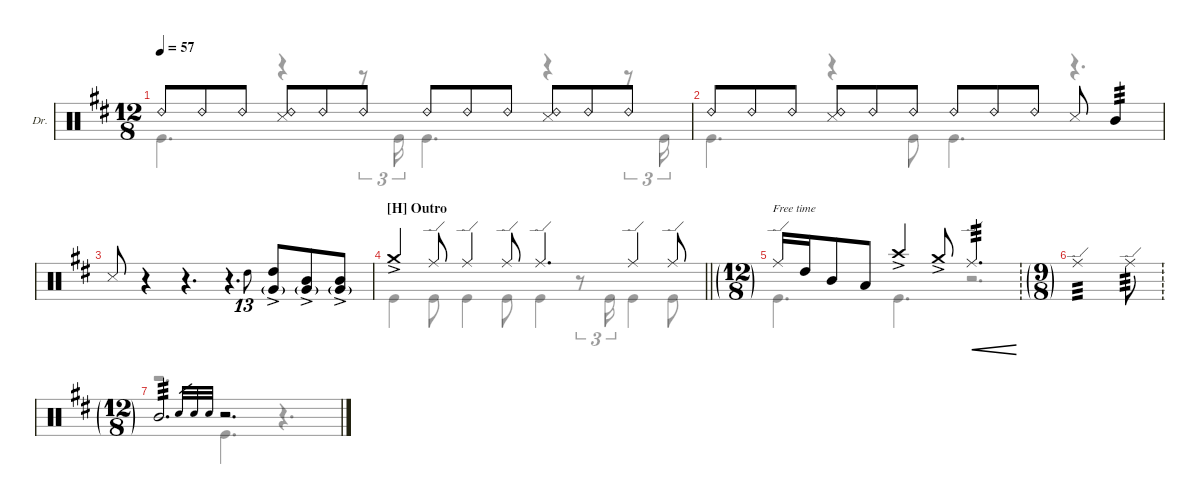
\defaultSystemsLayout 4
\hideDynamics
\bracketExtendMode groupsimilarinstruments
\firstSystemTrackNameOrientation horizontal
\otherSystemsTrackNameOrientation horizontal
\track ("Drums" "Dr.") {instrument percussion}
\staff {score}
\articulation defaults
\voice
\ts (12 8)
\tempo 57
\clef neutral
\ks d "Ride (bell) 2".8{dy p} "Ride (bell) 2".8 "Ride (bell) 2".8
("Ride (bell) 2" "Snare (side stick) 3").8 "Ride (bell) 2".8 "Ride (bell) 2".8 "Ride (bell) 2".8 "Ride (bell) 2".8 "Ride (bell) 2".8 ("Ride (bell) 2" "Snare (side stick) 3").8 "Ride (bell) 2".8 "Ride (bell) 2".8 |
"Ride (bell) 2".8 "Ride (bell) 2".8 "Ride (bell) 2".8 ("Ride (bell) 2" "Snare (side stick) 3").8 "Ride (bell) 2".8 "Ride (bell) 2".8 "Ride (bell) 2".8 "Ride (bell) 2".8 "Ride (bell) 2".8 "Snare (side stick) 3".8 "Mid Tom (hit)".4{tp 3} |
"Snare (side stick) 3".8{beam invert} r.4{beam invert} r.4{d beam invert} r.4{d beam invert} "High Tom (hit)".8{tu (13 8) gr onbeat dy pp beam invert} ("High Tom (hit)"{ac} "Very Low Tom (hit)"{g}).8{dy mp beam invert} ("Mid Tom (hit)"{ac} "Very Low Tom (hit)"{g}).8 ("Mid Tom (hit)"{ac} "Very Low Tom (hit)"{g}).8 |
\section ("H" "Outro")
\barLineRight lightlight "Crash medium (hit)"{ac}.4{dy p} "Ride (edge)".8 "Ride (edge)".4 "Ride (edge)".8 "Ride (edge)".4{d} "Ride (edge)".4 "Ride (edge)".8
|
\ft "Ride (edge)".16 "High Tom (hit)".16 "Mid Tom (hit)".8 "Low Tom (hit)".8 "Crash high (hit)"{ac}.4 "Crash medium (hit)"{ac}.8 "Ride (edge)".2{d tp 3 cre dy pp}
|
\ts (9 8)
\ft "Ride (edge)".1{tp 3} "Ride (edge)".8{tp 3}
|
\ts (12 8)
\ft "Mid Tom (hit)".2{d tp 3} "Snare (hit) 2".32{gr dy ppp} "Snare (hit) 2".32{gr} "Snare (hit) 2".32{gr}
r.2{d}
\voice
\clef neutral
\ottava regular
\simile none
\ks d "Kick (hit)".4{d dy p}
r.4 r.8{tu (3 2)} "Kick (hit)".16{tu (3 2)} "Kick (hit)".4{d} r.4 r.8{tu (3 2)} "Kick (hit)".16{tu (3 2)} |
"Kick (hit)".4{d} r.4 "Kick (hit)".8 "Kick (hit)".4{d} r.4{d} |
|
\barLineRight lightlight "Kick (hit)".4 "Kick (hit)".8 "Kick (hit)".4 "Kick (hit)".8 "Kick (hit)".4
r.8{tu (3 2)} "Kick (hit)".16{tu (3 2)} "Kick (hit)".4 "Kick (hit)".8 |
"Kick (hit)".4{d} "Kick (hit)".4{d} r.2{d} |
|
r.2{d} "Kick (hit)".4{d} r.4{d}
